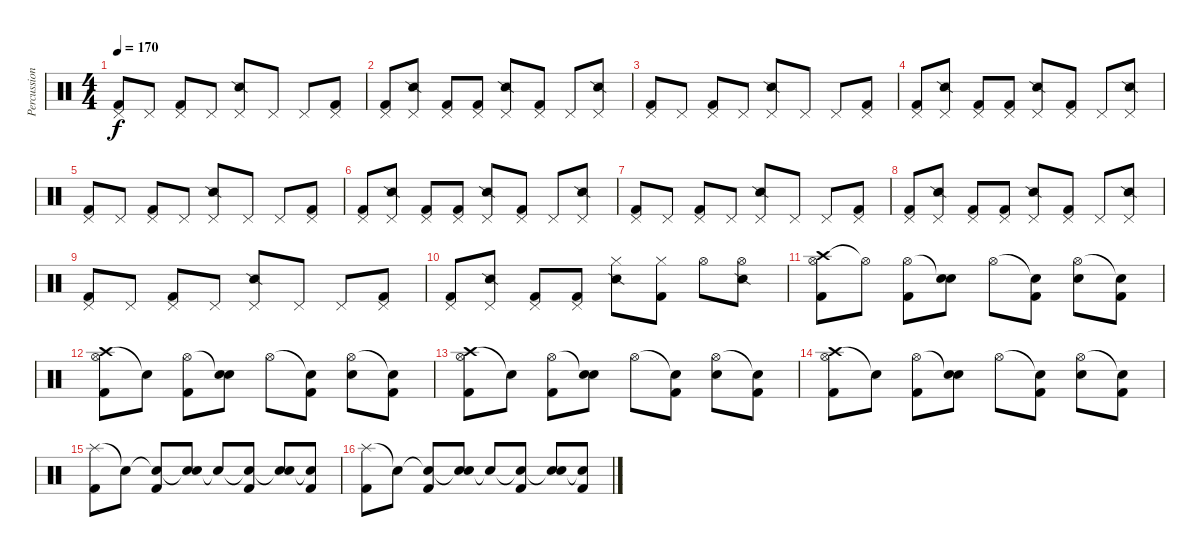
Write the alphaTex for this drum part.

\track ("Percussion" "Percussion") {instrument percussion}
\staff {score}
\articulation defaults
\ts (4 4)
\tempo 170
\clef neutral
\ks c
("Pedal Hi-Hat (hit)" "Kick (hit) 2").8{dy f} "Pedal Hi-Hat (hit)".8 ("Pedal Hi-Hat (hit)" "Kick (hit) 2").8 "Pedal Hi-Hat (hit)".8 ("Pedal Hi-Hat (hit)" "Snare (side stick) 2").8 "Pedal Hi-Hat (hit)".8 "Pedal Hi-Hat (hit)".8 ("Pedal Hi-Hat (hit)" "Kick (hit) 2").8 |
("Pedal Hi-Hat (hit)" "Kick (hit) 2").8 ("Pedal Hi-Hat (hit)" "Snare (side stick) 2").8 ("Pedal Hi-Hat (hit)" "Kick (hit) 2").8 ("Pedal Hi-Hat (hit)" "Kick (hit) 2").8 ("Pedal Hi-Hat (hit)" "Snare (side stick) 2").8 ("Pedal Hi-Hat (hit)" "Kick (hit) 2").8 "Pedal Hi-Hat (hit)".8 ("Pedal Hi-Hat (hit)" "Snare (side stick) 2").8 |
("Pedal Hi-Hat (hit)" "Kick (hit) 2").8 "Pedal Hi-Hat (hit)".8 ("Pedal Hi-Hat (hit)" "Kick (hit) 2").8 "Pedal Hi-Hat (hit)".8 ("Pedal Hi-Hat (hit)" "Snare (side stick) 2").8 "Pedal Hi-Hat (hit)".8 "Pedal Hi-Hat (hit)".8 ("Pedal Hi-Hat (hit)" "Kick (hit) 2").8 |
("Pedal Hi-Hat (hit)" "Kick (hit) 2").8 ("Pedal Hi-Hat (hit)" "Snare (side stick) 2").8 ("Pedal Hi-Hat (hit)" "Kick (hit) 2").8 ("Pedal Hi-Hat (hit)" "Kick (hit) 2").8 ("Pedal Hi-Hat (hit)" "Snare (side stick) 2").8 ("Pedal Hi-Hat (hit)" "Kick (hit) 2").8 "Pedal Hi-Hat (hit)".8 ("Pedal Hi-Hat (hit)" "Snare (side stick) 2").8 |
("Pedal Hi-Hat (hit)" "Kick (hit) 2").8 "Pedal Hi-Hat (hit)".8 ("Pedal Hi-Hat (hit)" "Kick (hit) 2").8 "Pedal Hi-Hat (hit)".8 ("Pedal Hi-Hat (hit)" "Snare (side stick) 2").8 "Pedal Hi-Hat (hit)".8 "Pedal Hi-Hat (hit)".8 ("Pedal Hi-Hat (hit)" "Kick (hit) 2").8 |
("Pedal Hi-Hat (hit)" "Kick (hit) 2").8 ("Pedal Hi-Hat (hit)" "Snare (side stick) 2").8 ("Pedal Hi-Hat (hit)" "Kick (hit) 2").8 ("Pedal Hi-Hat (hit)" "Kick (hit) 2").8 ("Pedal Hi-Hat (hit)" "Snare (side stick) 2").8 ("Pedal Hi-Hat (hit)" "Kick (hit) 2").8 "Pedal Hi-Hat (hit)".8 ("Pedal Hi-Hat (hit)" "Snare (side stick) 2").8 |
("Pedal Hi-Hat (hit)" "Kick (hit) 2").8 "Pedal Hi-Hat (hit)".8 ("Pedal Hi-Hat (hit)" "Kick (hit) 2").8 "Pedal Hi-Hat (hit)".8 ("Pedal Hi-Hat (hit)" "Snare (side stick) 2").8 "Pedal Hi-Hat (hit)".8 "Pedal Hi-Hat (hit)".8 ("Pedal Hi-Hat (hit)" "Kick (hit) 2").8 |
("Pedal Hi-Hat (hit)" "Kick (hit) 2").8 ("Pedal Hi-Hat (hit)" "Snare (side stick) 2").8 ("Pedal Hi-Hat (hit)" "Kick (hit) 2").8 ("Pedal Hi-Hat (hit)" "Kick (hit) 2").8 ("Pedal Hi-Hat (hit)" "Snare (side stick) 2").8 ("Pedal Hi-Hat (hit)" "Kick (hit) 2").8 "Pedal Hi-Hat (hit)".8 ("Pedal Hi-Hat (hit)" "Snare (side stick) 2").8 |
("Pedal Hi-Hat (hit)" "Kick (hit) 2").8 "Pedal Hi-Hat (hit)".8 ("Pedal Hi-Hat (hit)" "Kick (hit) 2").8 "Pedal Hi-Hat (hit)".8 ("Pedal Hi-Hat (hit)" "Snare (side stick) 2").8 "Pedal Hi-Hat (hit)".8 "Pedal Hi-Hat (hit)".8 ("Pedal Hi-Hat (hit)" "Kick (hit) 2").8 |
("Pedal Hi-Hat (hit)" "Kick (hit) 2").8 ("Pedal Hi-Hat (hit)" "Snare (side stick) 2").8 ("Pedal Hi-Hat (hit)" "Kick (hit) 2").8 ("Pedal Hi-Hat (hit)" "Kick (hit) 2").8 ("Hi-Hat (closed)" "Snare (side stick) 2").8 ("Hi-Hat (closed)" "Kick (hit) 2").8 "Hi-Hat (open)".8 ("Hi-Hat (open)" "Snare (side stick) 2").8 |
("Crash high (hit)" "Hi-Hat (open)" "Kick (hit) 2").8 "Hi-Hat (open)"{t}.8 ("Hi-Hat (open)" "Kick (hit) 2").8 ("Snare (hit)"{t} "Electric Snare (hit)").8 "Hi-Hat (open)".8 ("Snare (hit)"{t} "Kick (hit) 2").8 ("Hi-Hat (open)" "Electric Snare (hit)").8 ("Snare (hit)"{t} "Kick (hit) 2").8 |
("Crash high (hit)" "Hi-Hat (open)" "Kick (hit) 2").8 "Snare (hit)"{t}.8 ("Hi-Hat (open)" "Kick (hit) 2").8 ("Snare (hit)"{t} "Electric Snare (hit)").8 "Hi-Hat (open)".8 ("Snare (hit)"{t} "Kick (hit) 2").8 ("Hi-Hat (open)" "Electric Snare (hit)").8 ("Snare (hit)"{t} "Kick (hit) 2").8 |
("Crash high (hit)" "Hi-Hat (open)" "Kick (hit) 2").8 "Snare (hit)"{t}.8 ("Hi-Hat (open)" "Kick (hit) 2").8 ("Snare (hit)"{t} "Electric Snare (hit)").8 "Hi-Hat (open)".8 ("Snare (hit)"{t} "Kick (hit) 2").8 ("Hi-Hat (open)" "Electric Snare (hit)").8 ("Snare (hit)"{t} "Kick (hit) 2").8 |
("Crash high (hit)" "Hi-Hat (open)" "Kick (hit) 2").8 "Snare (hit)"{t}.8 ("Hi-Hat (open)" "Kick (hit) 2").8 ("Snare (hit)"{t} "Electric Snare (hit)").8 "Hi-Hat (open)".8 ("Snare (hit)"{t} "Kick (hit) 2").8 ("Hi-Hat (open)" "Electric Snare (hit)").8 ("Snare (hit)"{t} "Kick (hit) 2").8 |
("Splash (hit)" "Kick (hit) 2").8 "Snare (hit)"{t}.8 ("Snare (hit)"{t} "Kick (hit) 2").8 ("Snare (hit)"{t} "Electric Snare (hit)").8 "Snare (hit)"{t}.8 ("Snare (hit)"{t} "Kick (hit) 2").8 ("Snare (hit)"{t} "Electric Snare (hit)").8 ("Snare (hit)"{t} "Kick (hit) 2").8 |
("Splash (hit)" "Kick (hit) 2").8 "Snare (hit)"{t}.8 ("Snare (hit)"{t} "Kick (hit) 2").8 ("Snare (hit)"{t} "Electric Snare (hit)").8 "Snare (hit)"{t}.8 ("Snare (hit)"{t} "Kick (hit) 2").8 ("Snare (hit)"{t} "Electric Snare (hit)").8 ("Snare (hit)"{t} "Kick (hit) 2").8
